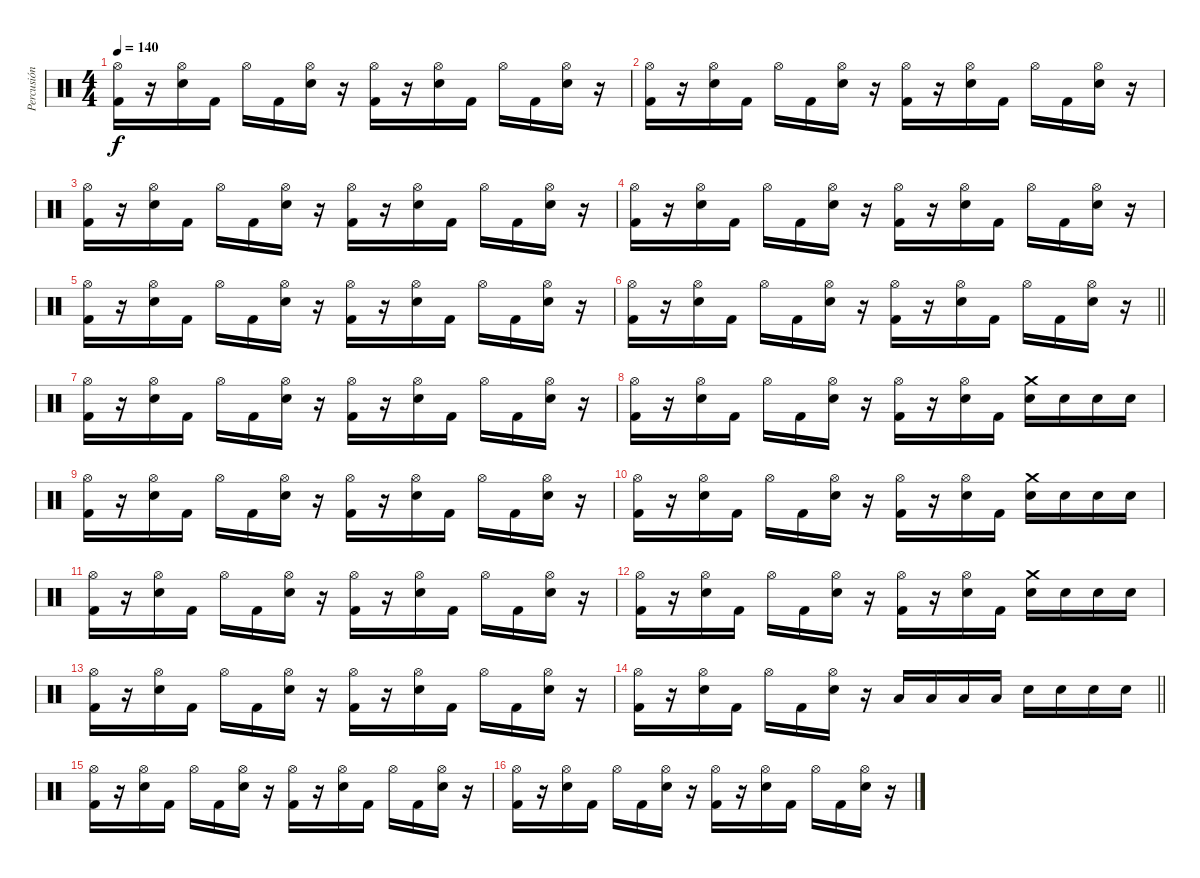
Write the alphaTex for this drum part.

\track ("Percusión" "Percusión") {instrument percussion}
\staff {score}
\articulation defaults
\ts (4 4)
\tempo 140
\clef neutral
\ks c
("Hi-Hat (open)" "Kick (hit) 2").16{dy f} r.16 ("Hi-Hat (open)" "Electric Snare (hit)").16 "Kick (hit) 2".16 "Hi-Hat (open)".16 "Kick (hit) 2".16 ("Hi-Hat (open)" "Electric Snare (hit)").16 r.16 ("Hi-Hat (open)" "Kick (hit) 2").16 r.16 ("Hi-Hat (open)" "Electric Snare (hit)").16 "Kick (hit) 2".16 "Hi-Hat (open)".16 "Kick (hit) 2".16 ("Hi-Hat (open)" "Electric Snare (hit)").16 r.16 |
("Hi-Hat (open)" "Kick (hit) 2").16 r.16 ("Hi-Hat (open)" "Electric Snare (hit)").16 "Kick (hit) 2".16 "Hi-Hat (open)".16 "Kick (hit) 2".16 ("Hi-Hat (open)" "Electric Snare (hit)").16 r.16 ("Hi-Hat (open)" "Kick (hit) 2").16 r.16 ("Hi-Hat (open)" "Electric Snare (hit)").16 "Kick (hit) 2".16 "Hi-Hat (open)".16 "Kick (hit) 2".16 ("Hi-Hat (open)" "Electric Snare (hit)").16 r.16 |
("Hi-Hat (open)" "Kick (hit) 2").16 r.16 ("Hi-Hat (open)" "Electric Snare (hit)").16 "Kick (hit) 2".16 "Hi-Hat (open)".16 "Kick (hit) 2".16 ("Hi-Hat (open)" "Electric Snare (hit)").16 r.16 ("Hi-Hat (open)" "Kick (hit) 2").16 r.16 ("Hi-Hat (open)" "Electric Snare (hit)").16 "Kick (hit) 2".16 "Hi-Hat (open)".16 "Kick (hit) 2".16 ("Hi-Hat (open)" "Electric Snare (hit)").16 r.16 |
("Hi-Hat (open)" "Kick (hit) 2").16 r.16 ("Hi-Hat (open)" "Electric Snare (hit)").16 "Kick (hit) 2".16 "Hi-Hat (open)".16 "Kick (hit) 2".16 ("Hi-Hat (open)" "Electric Snare (hit)").16 r.16 ("Hi-Hat (open)" "Kick (hit) 2").16 r.16 ("Hi-Hat (open)" "Electric Snare (hit)").16 "Kick (hit) 2".16 "Hi-Hat (open)".16 "Kick (hit) 2".16 ("Hi-Hat (open)" "Electric Snare (hit)").16 r.16 |
("Hi-Hat (open)" "Kick (hit) 2").16 r.16 ("Hi-Hat (open)" "Electric Snare (hit)").16 "Kick (hit) 2".16 "Hi-Hat (open)".16 "Kick (hit) 2".16 ("Hi-Hat (open)" "Electric Snare (hit)").16 r.16 ("Hi-Hat (open)" "Kick (hit) 2").16 r.16 ("Hi-Hat (open)" "Electric Snare (hit)").16 "Kick (hit) 2".16 "Hi-Hat (open)".16 "Kick (hit) 2".16 ("Hi-Hat (open)" "Electric Snare (hit)").16 r.16 |
\barLineRight lightlight
("Hi-Hat (open)" "Kick (hit) 2").16 r.16 ("Hi-Hat (open)" "Electric Snare (hit)").16 "Kick (hit) 2".16 "Hi-Hat (open)".16 "Kick (hit) 2".16 ("Hi-Hat (open)" "Electric Snare (hit)").16 r.16 ("Hi-Hat (open)" "Kick (hit) 2").16 r.16 ("Hi-Hat (open)" "Electric Snare (hit)").16 "Kick (hit) 2".16 "Hi-Hat (open)".16 "Kick (hit) 2".16 ("Hi-Hat (open)" "Electric Snare (hit)").16 r.16 |
("Hi-Hat (open)" "Kick (hit) 2").16 r.16 ("Hi-Hat (open)" "Electric Snare (hit)").16 "Kick (hit) 2".16 "Hi-Hat (open)".16 "Kick (hit) 2".16 ("Hi-Hat (open)" "Electric Snare (hit)").16 r.16 ("Hi-Hat (open)" "Kick (hit) 2").16 r.16 ("Hi-Hat (open)" "Electric Snare (hit)").16 "Kick (hit) 2".16 "Hi-Hat (open)".16 "Kick (hit) 2".16 ("Hi-Hat (open)" "Electric Snare (hit)").16 r.16 |
("Hi-Hat (open)" "Kick (hit) 2").16 r.16 ("Hi-Hat (open)" "Electric Snare (hit)").16 "Kick (hit) 2".16 "Hi-Hat (open)".16 "Kick (hit) 2".16 ("Hi-Hat (open)" "Electric Snare (hit)").16 r.16 ("Hi-Hat (open)" "Kick (hit) 2").16 r.16 ("Hi-Hat (open)" "Electric Snare (hit)").16 "Kick (hit) 2".16 ("Crash medium (hit)" "Electric Snare (hit)").16 "Electric Snare (hit)".16 "Electric Snare (hit)".16 "Electric Snare (hit)".16 |
("Hi-Hat (open)" "Kick (hit) 2").16 r.16 ("Hi-Hat (open)" "Electric Snare (hit)").16 "Kick (hit) 2".16 "Hi-Hat (open)".16 "Kick (hit) 2".16 ("Hi-Hat (open)" "Electric Snare (hit)").16 r.16 ("Hi-Hat (open)" "Kick (hit) 2").16 r.16 ("Hi-Hat (open)" "Electric Snare (hit)").16 "Kick (hit) 2".16 "Hi-Hat (open)".16 "Kick (hit) 2".16 ("Hi-Hat (open)" "Electric Snare (hit)").16 r.16 |
("Hi-Hat (open)" "Kick (hit) 2").16 r.16 ("Hi-Hat (open)" "Electric Snare (hit)").16 "Kick (hit) 2".16 "Hi-Hat (open)".16 "Kick (hit) 2".16 ("Hi-Hat (open)" "Electric Snare (hit)").16 r.16 ("Hi-Hat (open)" "Kick (hit) 2").16 r.16 ("Hi-Hat (open)" "Electric Snare (hit)").16 "Kick (hit) 2".16 ("Crash medium (hit)" "Electric Snare (hit)").16 "Electric Snare (hit)".16 "Electric Snare (hit)".16 "Electric Snare (hit)".16 |
("Hi-Hat (open)" "Kick (hit) 2").16 r.16 ("Hi-Hat (open)" "Electric Snare (hit)").16 "Kick (hit) 2".16 "Hi-Hat (open)".16 "Kick (hit) 2".16 ("Hi-Hat (open)" "Electric Snare (hit)").16 r.16 ("Hi-Hat (open)" "Kick (hit) 2").16 r.16 ("Hi-Hat (open)" "Electric Snare (hit)").16 "Kick (hit) 2".16 "Hi-Hat (open)".16 "Kick (hit) 2".16 ("Hi-Hat (open)" "Electric Snare (hit)").16 r.16 |
("Hi-Hat (open)" "Kick (hit) 2").16 r.16 ("Hi-Hat (open)" "Electric Snare (hit)").16 "Kick (hit) 2".16 "Hi-Hat (open)".16 "Kick (hit) 2".16 ("Hi-Hat (open)" "Electric Snare (hit)").16 r.16 ("Hi-Hat (open)" "Kick (hit) 2").16 r.16 ("Hi-Hat (open)" "Electric Snare (hit)").16 "Kick (hit) 2".16 ("Crash medium (hit)" "Electric Snare (hit)").16 "Electric Snare (hit)".16 "Electric Snare (hit)".16 "Electric Snare (hit)".16 |
("Hi-Hat (open)" "Kick (hit) 2").16 r.16 ("Hi-Hat (open)" "Electric Snare (hit)").16 "Kick (hit) 2".16 "Hi-Hat (open)".16 "Kick (hit) 2".16 ("Hi-Hat (open)" "Electric Snare (hit)").16 r.16 ("Hi-Hat (open)" "Kick (hit) 2").16 r.16 ("Hi-Hat (open)" "Electric Snare (hit)").16 "Kick (hit) 2".16 "Hi-Hat (open)".16 "Kick (hit) 2".16 ("Hi-Hat (open)" "Electric Snare (hit)").16 r.16 |
\barLineRight lightlight
("Hi-Hat (open)" "Kick (hit) 2").16 r.16 ("Hi-Hat (open)" "Electric Snare (hit)").16 "Kick (hit) 2".16 "Hi-Hat (open)".16 "Kick (hit) 2".16 ("Hi-Hat (open)" "Electric Snare (hit)").16 r.16 "Low Tom (hit)".16 "Low Tom (hit)".16 "Low Tom (hit)".16 "Low Tom (hit)".16 "Electric Snare (hit)".16 "Electric Snare (hit)".16 "Electric Snare (hit)".16 "Electric Snare (hit)".16 |
("Hi-Hat (open)" "Kick (hit) 2").16 r.16 ("Hi-Hat (open)" "Electric Snare (hit)").16 "Kick (hit) 2".16 "Hi-Hat (open)".16 "Kick (hit) 2".16 ("Hi-Hat (open)" "Electric Snare (hit)").16 r.16 ("Hi-Hat (open)" "Kick (hit) 2").16 r.16 ("Hi-Hat (open)" "Electric Snare (hit)").16 "Kick (hit) 2".16 "Hi-Hat (open)".16 "Kick (hit) 2".16 ("Hi-Hat (open)" "Electric Snare (hit)").16 r.16 |
("Hi-Hat (open)" "Kick (hit) 2").16 r.16 ("Hi-Hat (open)" "Electric Snare (hit)").16 "Kick (hit) 2".16 "Hi-Hat (open)".16 "Kick (hit) 2".16 ("Hi-Hat (open)" "Electric Snare (hit)").16 r.16 ("Hi-Hat (open)" "Kick (hit) 2").16 r.16 ("Hi-Hat (open)" "Electric Snare (hit)").16 "Kick (hit) 2".16 "Hi-Hat (open)".16 "Kick (hit) 2".16 ("Hi-Hat (open)" "Electric Snare (hit)").16 r.16
